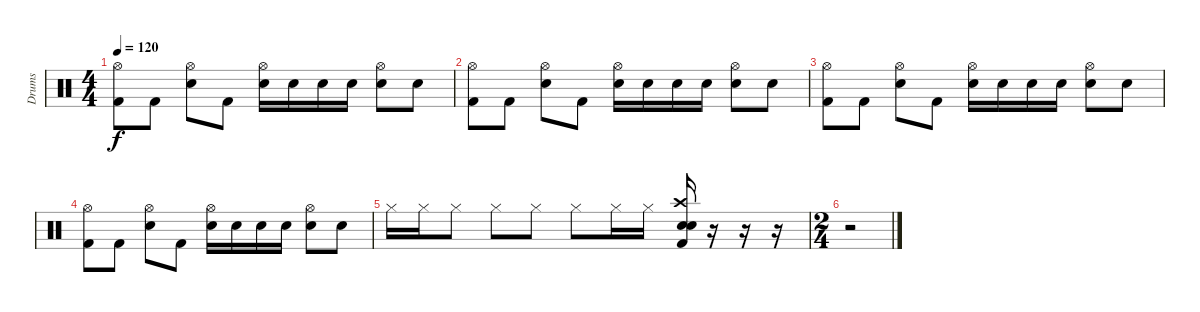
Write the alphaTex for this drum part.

\track ("Drums" "Drums") {instrument percussion}
\staff {score}
\articulation defaults
\ts (4 4)
\tempo 120
\clef neutral
\ks c
("Hi-Hat (open)" "Kick (hit) 2").8{dy f} "Kick (hit) 2".8 ("Hi-Hat (open)" "Electric Snare (hit)").8 "Kick (hit) 2".8 ("Hi-Hat (open)" "Electric Snare (hit)").16 "Electric Snare (hit)".16 "Electric Snare (hit)".16 "Electric Snare (hit)".16 ("Hi-Hat (open)" "Electric Snare (hit)").8 "Electric Snare (hit)".8 |
("Hi-Hat (open)" "Kick (hit) 2").8 "Kick (hit) 2".8 ("Hi-Hat (open)" "Electric Snare (hit)").8 "Kick (hit) 2".8 ("Hi-Hat (open)" "Electric Snare (hit)").16 "Electric Snare (hit)".16 "Electric Snare (hit)".16 "Electric Snare (hit)".16 ("Hi-Hat (open)" "Electric Snare (hit)").8 "Electric Snare (hit)".8 |
("Hi-Hat (open)" "Kick (hit) 2").8 "Kick (hit) 2".8 ("Hi-Hat (open)" "Electric Snare (hit)").8 "Kick (hit) 2".8 ("Hi-Hat (open)" "Electric Snare (hit)").16 "Electric Snare (hit)".16 "Electric Snare (hit)".16 "Electric Snare (hit)".16 ("Hi-Hat (open)" "Electric Snare (hit)").8 "Electric Snare (hit)".8 |
("Hi-Hat (open)" "Kick (hit) 2").8 "Kick (hit) 2".8 ("Hi-Hat (open)" "Electric Snare (hit)").8 "Kick (hit) 2".8 ("Hi-Hat (open)" "Electric Snare (hit)").16 "Electric Snare (hit)".16 "Electric Snare (hit)".16 "Electric Snare (hit)".16 ("Hi-Hat (open)" "Electric Snare (hit)").8 "Electric Snare (hit)".8 |
"Hi-Hat (closed)".16 "Hi-Hat (closed)".16 "Hi-Hat (closed)".8 "Hi-Hat (closed)".8 "Hi-Hat (closed)".8 "Hi-Hat (closed)".8 "Hi-Hat (closed)".16 "Hi-Hat (closed)".16 ("Crash high (hit)" "Kick (hit) 2" "Snare (hit) 2" "Electric Snare (hit)").16 r.16 r.16 r.16 |
\ts (2 4)
r.2
